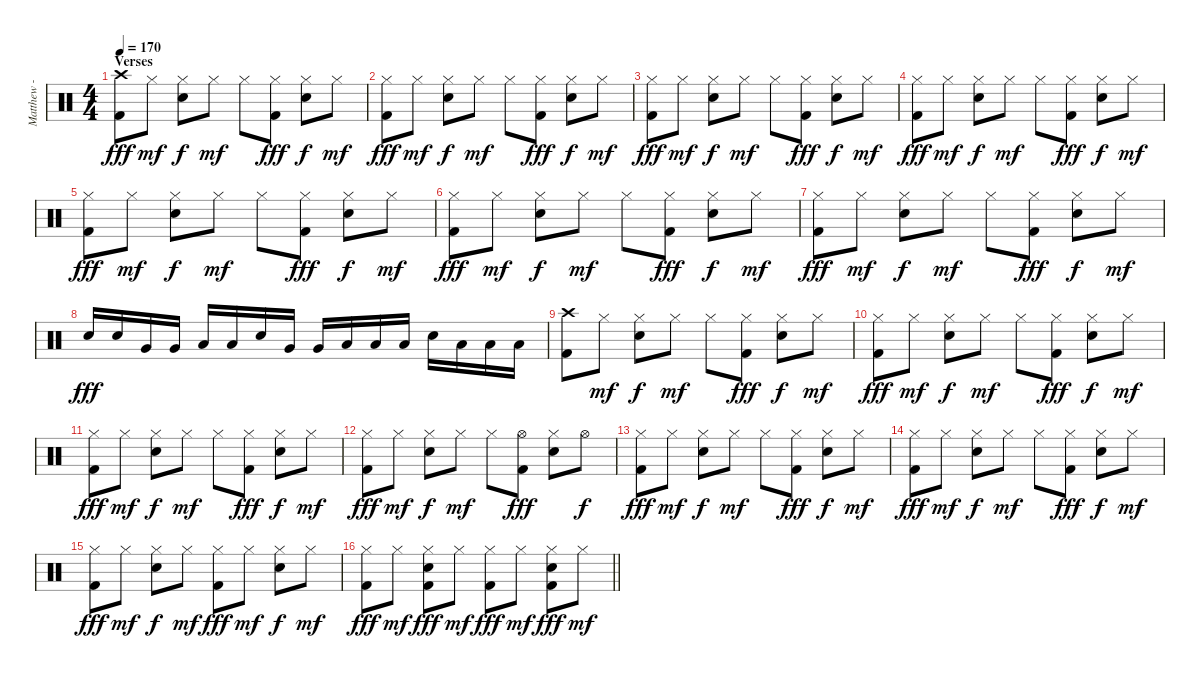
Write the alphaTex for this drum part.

\track ("Matthew - Drums" "Matthew - ") {instrument percussion}
\staff {score}
\articulation defaults
\ts (4 4)
\section ("" "Verses")
\tempo 170
\clef neutral
\ks c
("Crash high (hit)" "Kick (hit) 2").8{dy fff} "Hi-Hat (closed)".8{dy mf} ("Hi-Hat (closed)" "Electric Snare (hit)").8{dy f} "Hi-Hat (closed)".8{dy mf} "Hi-Hat (closed)".8 ("Hi-Hat (closed)" "Kick (hit) 2").8{dy fff} ("Hi-Hat (closed)" "Electric Snare (hit)").8{dy f} "Hi-Hat (closed)".8{dy mf} |
("Hi-Hat (closed)" "Kick (hit) 2").8{dy fff} "Hi-Hat (closed)".8{dy mf} ("Hi-Hat (closed)" "Electric Snare (hit)").8{dy f} "Hi-Hat (closed)".8{dy mf} "Hi-Hat (closed)".8 ("Hi-Hat (closed)" "Kick (hit) 2").8{dy fff} ("Hi-Hat (closed)" "Electric Snare (hit)").8{dy f} "Hi-Hat (closed)".8{dy mf} |
("Hi-Hat (closed)" "Kick (hit) 2").8{dy fff} "Hi-Hat (closed)".8{dy mf} ("Hi-Hat (closed)" "Electric Snare (hit)").8{dy f} "Hi-Hat (closed)".8{dy mf} "Hi-Hat (closed)".8 ("Hi-Hat (closed)" "Kick (hit) 2").8{dy fff} ("Hi-Hat (closed)" "Electric Snare (hit)").8{dy f} "Hi-Hat (closed)".8{dy mf} |
("Hi-Hat (closed)" "Kick (hit) 2").8{dy fff} "Hi-Hat (closed)".8{dy mf} ("Hi-Hat (closed)" "Electric Snare (hit)").8{dy f} "Hi-Hat (closed)".8{dy mf} "Hi-Hat (closed)".8 ("Hi-Hat (closed)" "Kick (hit) 2").8{dy fff} ("Hi-Hat (closed)" "Electric Snare (hit)").8{dy f} "Hi-Hat (closed)".8{dy mf} |
("Hi-Hat (closed)" "Kick (hit) 2").8{dy fff} "Hi-Hat (closed)".8{dy mf} ("Hi-Hat (closed)" "Electric Snare (hit)").8{dy f} "Hi-Hat (closed)".8{dy mf} "Hi-Hat (closed)".8 ("Hi-Hat (closed)" "Kick (hit) 2").8{dy fff} ("Hi-Hat (closed)" "Electric Snare (hit)").8{dy f} "Hi-Hat (closed)".8{dy mf} |
("Hi-Hat (closed)" "Kick (hit) 2").8{dy fff} "Hi-Hat (closed)".8{dy mf} ("Hi-Hat (closed)" "Electric Snare (hit)").8{dy f} "Hi-Hat (closed)".8{dy mf} "Hi-Hat (closed)".8 ("Hi-Hat (closed)" "Kick (hit) 2").8{dy fff} ("Hi-Hat (closed)" "Electric Snare (hit)").8{dy f} "Hi-Hat (closed)".8{dy mf} |
("Hi-Hat (closed)" "Kick (hit) 2").8{dy fff} "Hi-Hat (closed)".8{dy mf} ("Hi-Hat (closed)" "Electric Snare (hit)").8{dy f} "Hi-Hat (closed)".8{dy mf} "Hi-Hat (closed)".8 ("Hi-Hat (closed)" "Kick (hit) 2").8{dy fff} ("Hi-Hat (closed)" "Electric Snare (hit)").8{dy f} "Hi-Hat (closed)".8{dy mf} |
"Electric Snare (hit)".16{dy fff} "Electric Snare (hit)".16 "Very Low Tom (hit)".16 "Very Low Tom (hit)".16 "Low Floor Tom (hit)".16 "Low Floor Tom (hit)".16 "Electric Snare (hit)".16 "Very Low Tom (hit)".16 "Very Low Tom (hit)".16 "Low Floor Tom (hit)".16 "Low Floor Tom (hit)".16 "Low Floor Tom (hit)".16 "Electric Snare (hit)".16 "Low Floor Tom (hit)".16 "Low Floor Tom (hit)".16 "Low Floor Tom (hit)".16 |
("Crash high (hit)" "Kick (hit) 2").8 "Hi-Hat (closed)".8{dy mf} ("Hi-Hat (closed)" "Electric Snare (hit)").8{dy f} "Hi-Hat (closed)".8{dy mf} "Hi-Hat (closed)".8 ("Hi-Hat (closed)" "Kick (hit) 2").8{dy fff} ("Hi-Hat (closed)" "Electric Snare (hit)").8{dy f} "Hi-Hat (closed)".8{dy mf} |
("Hi-Hat (closed)" "Kick (hit) 2").8{dy fff} "Hi-Hat (closed)".8{dy mf} ("Hi-Hat (closed)" "Electric Snare (hit)").8{dy f} "Hi-Hat (closed)".8{dy mf} "Hi-Hat (closed)".8 ("Hi-Hat (closed)" "Kick (hit) 2").8{dy fff} ("Hi-Hat (closed)" "Electric Snare (hit)").8{dy f} "Hi-Hat (closed)".8{dy mf} |
("Hi-Hat (closed)" "Kick (hit) 2").8{dy fff} "Hi-Hat (closed)".8{dy mf} ("Hi-Hat (closed)" "Electric Snare (hit)").8{dy f} "Hi-Hat (closed)".8{dy mf} "Hi-Hat (closed)".8 ("Hi-Hat (closed)" "Kick (hit) 2").8{dy fff} ("Hi-Hat (closed)" "Electric Snare (hit)").8{dy f} "Hi-Hat (closed)".8{dy mf} |
("Hi-Hat (closed)" "Kick (hit) 2").8{dy fff} "Hi-Hat (closed)".8{dy mf} ("Hi-Hat (closed)" "Electric Snare (hit)").8{dy f} "Hi-Hat (closed)".8{dy mf} "Hi-Hat (closed)".8 ("Hi-Hat (open)" "Kick (hit) 2").8{dy fff} ("Hi-Hat (closed)" "Electric Snare (hit)").8 "Hi-Hat (open)".8{dy f} |
("Hi-Hat (closed)" "Kick (hit) 2").8{dy fff} "Hi-Hat (closed)".8{dy mf} ("Hi-Hat (closed)" "Electric Snare (hit)").8{dy f} "Hi-Hat (closed)".8{dy mf} "Hi-Hat (closed)".8 ("Hi-Hat (closed)" "Kick (hit) 2").8{dy fff} ("Hi-Hat (closed)" "Electric Snare (hit)").8{dy f} "Hi-Hat (closed)".8{dy mf} |
("Hi-Hat (closed)" "Kick (hit) 2").8{dy fff} "Hi-Hat (closed)".8{dy mf} ("Hi-Hat (closed)" "Electric Snare (hit)").8{dy f} "Hi-Hat (closed)".8{dy mf} "Hi-Hat (closed)".8 ("Hi-Hat (closed)" "Kick (hit) 2").8{dy fff} ("Hi-Hat (closed)" "Electric Snare (hit)").8{dy f} "Hi-Hat (closed)".8{dy mf} |
("Hi-Hat (closed)" "Kick (hit) 2").8{dy fff} "Hi-Hat (closed)".8{dy mf} ("Hi-Hat (closed)" "Electric Snare (hit)").8{dy f} "Hi-Hat (closed)".8{dy mf} ("Hi-Hat (closed)" "Kick (hit) 2").8{dy fff} "Hi-Hat (closed)".8{dy mf} ("Hi-Hat (closed)" "Electric Snare (hit)").8{dy f} "Hi-Hat (closed)".8{dy mf} |
\barLineRight lightlight
("Hi-Hat (closed)" "Kick (hit) 2").8{dy fff} "Hi-Hat (closed)".8{dy mf} ("Hi-Hat (closed)" "Electric Snare (hit)" "Kick (hit) 2").8{dy fff} "Hi-Hat (closed)".8{dy mf} ("Hi-Hat (closed)" "Kick (hit) 2").8{dy fff} "Hi-Hat (closed)".8{dy mf} ("Hi-Hat (closed)" "Electric Snare (hit)" "Kick (hit) 2").8{dy fff} "Hi-Hat (closed)".8{dy mf}
